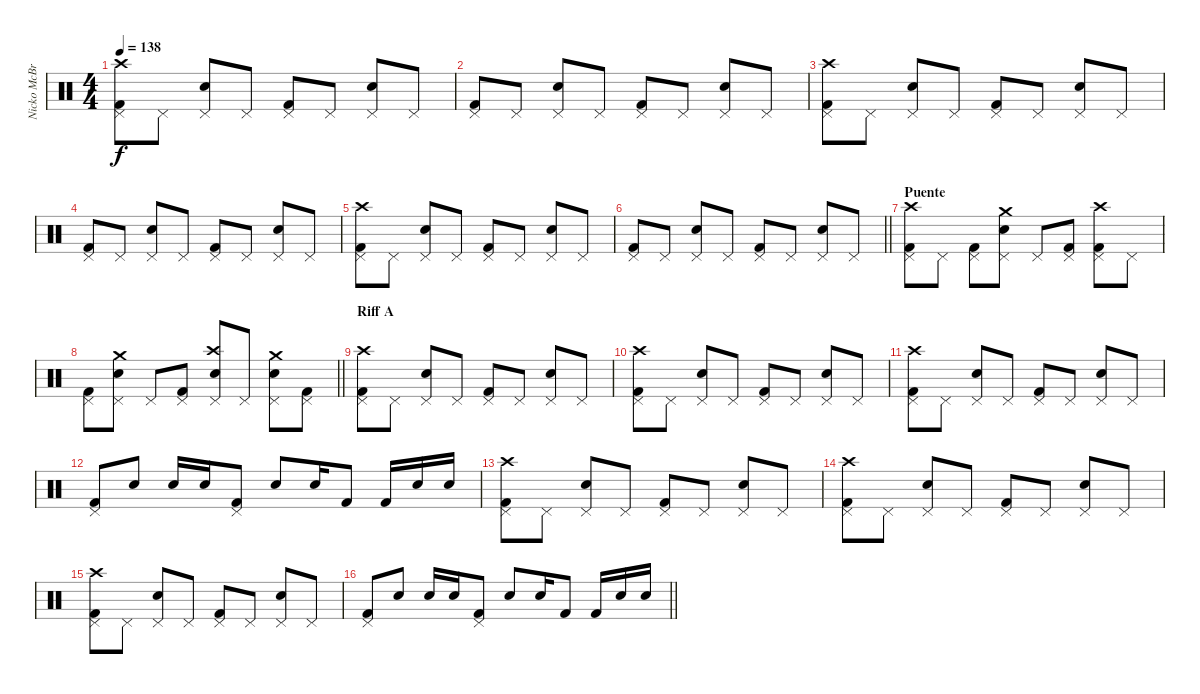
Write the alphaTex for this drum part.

\track ("Nicko McBrain" "Nicko McBr") {instrument percussion}
\staff {score}
\articulation defaults
\ts (4 4)
\tempo 138
\clef neutral
\ks c
("Kick (hit) 2" "Pedal Hi-Hat (hit)" "Crash high (hit)").8{dy f} "Pedal Hi-Hat (hit)".8 ("Snare (hit) 2" "Pedal Hi-Hat (hit)").8 "Pedal Hi-Hat (hit)".8 ("Kick (hit) 2" "Pedal Hi-Hat (hit)").8 "Pedal Hi-Hat (hit)".8 ("Snare (hit) 2" "Pedal Hi-Hat (hit)").8 "Pedal Hi-Hat (hit)".8 |
("Kick (hit) 2" "Pedal Hi-Hat (hit)").8 "Pedal Hi-Hat (hit)".8 ("Snare (hit) 2" "Pedal Hi-Hat (hit)").8 "Pedal Hi-Hat (hit)".8 ("Kick (hit) 2" "Pedal Hi-Hat (hit)").8 "Pedal Hi-Hat (hit)".8 ("Snare (hit) 2" "Pedal Hi-Hat (hit)").8 "Pedal Hi-Hat (hit)".8 |
("Kick (hit) 2" "Pedal Hi-Hat (hit)" "Crash high (hit)").8 "Pedal Hi-Hat (hit)".8 ("Snare (hit) 2" "Pedal Hi-Hat (hit)").8 "Pedal Hi-Hat (hit)".8 ("Kick (hit) 2" "Pedal Hi-Hat (hit)").8 "Pedal Hi-Hat (hit)".8 ("Snare (hit) 2" "Pedal Hi-Hat (hit)").8 "Pedal Hi-Hat (hit)".8 |
("Kick (hit) 2" "Pedal Hi-Hat (hit)").8 "Pedal Hi-Hat (hit)".8 ("Snare (hit) 2" "Pedal Hi-Hat (hit)").8 "Pedal Hi-Hat (hit)".8 ("Kick (hit) 2" "Pedal Hi-Hat (hit)").8 "Pedal Hi-Hat (hit)".8 ("Snare (hit) 2" "Pedal Hi-Hat (hit)").8 "Pedal Hi-Hat (hit)".8 |
("Kick (hit) 2" "Pedal Hi-Hat (hit)" "Crash high (hit)").8 "Pedal Hi-Hat (hit)".8 ("Snare (hit) 2" "Pedal Hi-Hat (hit)").8 "Pedal Hi-Hat (hit)".8 ("Kick (hit) 2" "Pedal Hi-Hat (hit)").8 "Pedal Hi-Hat (hit)".8 ("Snare (hit) 2" "Pedal Hi-Hat (hit)").8 "Pedal Hi-Hat (hit)".8 |
\barLineRight lightlight
("Kick (hit) 2" "Pedal Hi-Hat (hit)").8 "Pedal Hi-Hat (hit)".8 ("Snare (hit) 2" "Pedal Hi-Hat (hit)").8 "Pedal Hi-Hat (hit)".8 ("Kick (hit) 2" "Pedal Hi-Hat (hit)").8 "Pedal Hi-Hat (hit)".8 ("Snare (hit) 2" "Pedal Hi-Hat (hit)").8 "Pedal Hi-Hat (hit)".8 |
\section ("" "Puente")
("Kick (hit) 2" "Pedal Hi-Hat (hit)" "Crash high (hit)").8 "Pedal Hi-Hat (hit)".8 ("Kick (hit) 2" "Pedal Hi-Hat (hit)").8 ("Snare (hit) 2" "Pedal Hi-Hat (hit)" "Crash medium (hit)").8 "Pedal Hi-Hat (hit)".8 ("Kick (hit) 2" "Pedal Hi-Hat (hit)").8 ("Kick (hit) 2" "Pedal Hi-Hat (hit)" "Crash high (hit)").8 "Pedal Hi-Hat (hit)".8 |
\barLineRight lightlight
("Kick (hit) 2" "Pedal Hi-Hat (hit)").8 ("Snare (hit) 2" "Pedal Hi-Hat (hit)" "Crash medium (hit)").8 "Pedal Hi-Hat (hit)".8 ("Kick (hit) 2" "Pedal Hi-Hat (hit)").8 ("Snare (hit) 2" "Pedal Hi-Hat (hit)" "Crash high (hit)").8 "Pedal Hi-Hat (hit)".8 ("Snare (hit) 2" "Pedal Hi-Hat (hit)" "Crash medium (hit)").8 ("Kick (hit) 2" "Pedal Hi-Hat (hit)").8 |
\section ("" "Riff A")
("Kick (hit) 2" "Pedal Hi-Hat (hit)" "Crash high (hit)").8 "Pedal Hi-Hat (hit)".8 ("Snare (hit) 2" "Pedal Hi-Hat (hit)").8 "Pedal Hi-Hat (hit)".8 ("Kick (hit) 2" "Pedal Hi-Hat (hit)").8 "Pedal Hi-Hat (hit)".8 ("Snare (hit) 2" "Pedal Hi-Hat (hit)").8 "Pedal Hi-Hat (hit)".8 |
("Kick (hit) 2" "Pedal Hi-Hat (hit)" "Crash high (hit)").8 "Pedal Hi-Hat (hit)".8 ("Snare (hit) 2" "Pedal Hi-Hat (hit)").8 "Pedal Hi-Hat (hit)".8 ("Kick (hit) 2" "Pedal Hi-Hat (hit)").8 "Pedal Hi-Hat (hit)".8 ("Snare (hit) 2" "Pedal Hi-Hat (hit)").8 "Pedal Hi-Hat (hit)".8 |
("Kick (hit) 2" "Pedal Hi-Hat (hit)" "Crash high (hit)").8 "Pedal Hi-Hat (hit)".8 ("Snare (hit) 2" "Pedal Hi-Hat (hit)").8 "Pedal Hi-Hat (hit)".8 ("Kick (hit) 2" "Pedal Hi-Hat (hit)").8 "Pedal Hi-Hat (hit)".8 ("Snare (hit) 2" "Pedal Hi-Hat (hit)").8 "Pedal Hi-Hat (hit)".8 |
("Kick (hit) 2" "Pedal Hi-Hat (hit)").8 "Snare (hit) 2".8 "Snare (hit) 2".16 "Snare (hit) 2".16 ("Kick (hit) 2" "Pedal Hi-Hat (hit)").8 "Snare (hit) 2".8 "Snare (hit) 2".16 "Kick (hit) 2".8 "Kick (hit) 2".16 "Snare (hit) 2".16 "Snare (hit) 2".16 |
("Kick (hit) 2" "Pedal Hi-Hat (hit)" "Crash high (hit)").8 "Pedal Hi-Hat (hit)".8 ("Snare (hit) 2" "Pedal Hi-Hat (hit)").8 "Pedal Hi-Hat (hit)".8 ("Kick (hit) 2" "Pedal Hi-Hat (hit)").8 "Pedal Hi-Hat (hit)".8 ("Snare (hit) 2" "Pedal Hi-Hat (hit)").8 "Pedal Hi-Hat (hit)".8 |
("Kick (hit) 2" "Pedal Hi-Hat (hit)" "Crash high (hit)").8 "Pedal Hi-Hat (hit)".8 ("Snare (hit) 2" "Pedal Hi-Hat (hit)").8 "Pedal Hi-Hat (hit)".8 ("Kick (hit) 2" "Pedal Hi-Hat (hit)").8 "Pedal Hi-Hat (hit)".8 ("Snare (hit) 2" "Pedal Hi-Hat (hit)").8 "Pedal Hi-Hat (hit)".8 |
("Kick (hit) 2" "Pedal Hi-Hat (hit)" "Crash high (hit)").8 "Pedal Hi-Hat (hit)".8 ("Snare (hit) 2" "Pedal Hi-Hat (hit)").8 "Pedal Hi-Hat (hit)".8 ("Kick (hit) 2" "Pedal Hi-Hat (hit)").8 "Pedal Hi-Hat (hit)".8 ("Snare (hit) 2" "Pedal Hi-Hat (hit)").8 "Pedal Hi-Hat (hit)".8 |
\barLineRight lightlight
("Kick (hit) 2" "Pedal Hi-Hat (hit)").8 "Snare (hit) 2".8 "Snare (hit) 2".16 "Snare (hit) 2".16 ("Kick (hit) 2" "Pedal Hi-Hat (hit)").8 "Snare (hit) 2".8 "Snare (hit) 2".16 "Kick (hit) 2".8 "Kick (hit) 2".16 "Snare (hit) 2".16 "Snare (hit) 2".16
